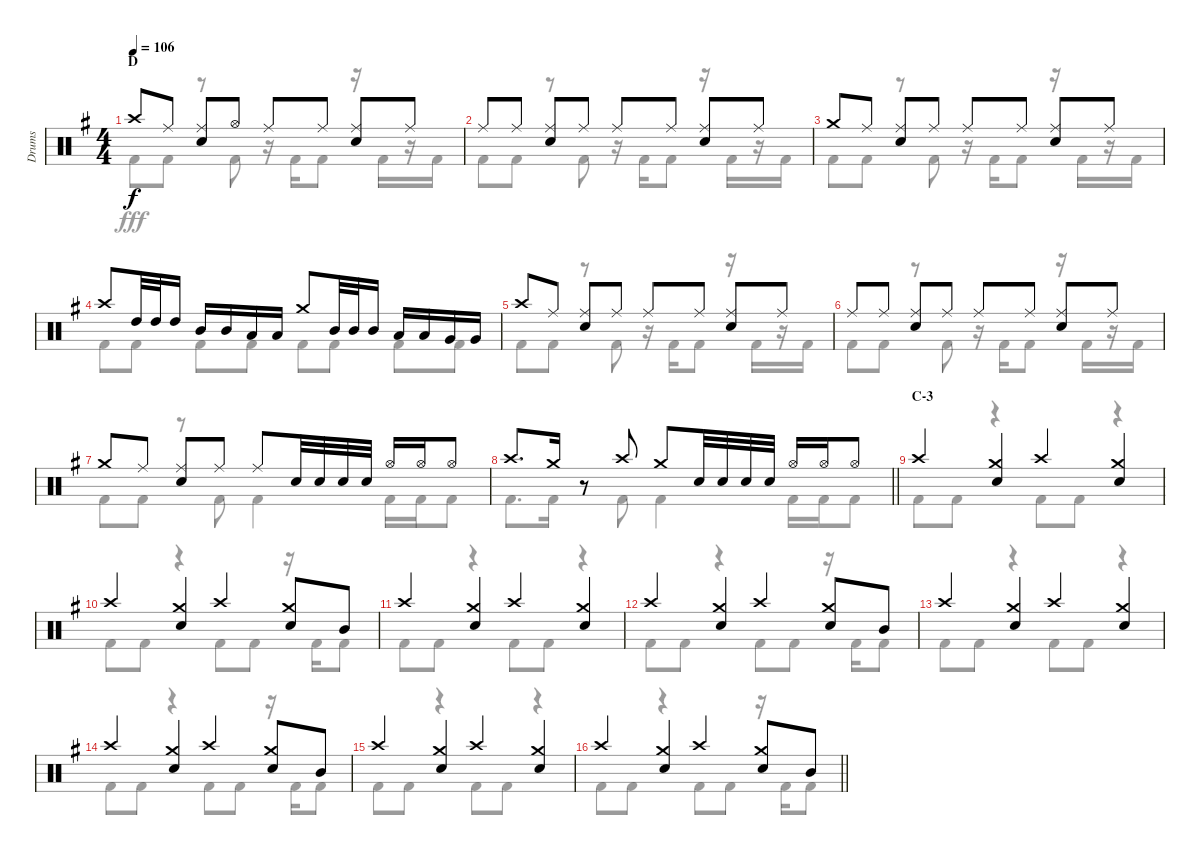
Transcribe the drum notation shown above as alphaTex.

\track ("Drums" "Drums") {instrument percussion}
\staff {score}
\articulation defaults
\voice
\ts (4 4)
\section ("" "D")
\tempo 106
\clef neutral
\ks g "Crash high (hit)".8{dy f} "Ride (middle)".8
("Ride (middle)" "Snare (hit) 2").8 "Hi-Hat (open)".8 "Ride (middle)".8 "Ride (middle)".8 ("Ride (middle)" "Snare (hit) 2").8 "Ride (middle)".8 |
"Ride (middle)".8 "Ride (middle)".8 ("Ride (middle)" "Snare (hit) 2").8 "Ride (middle)".8 "Ride (middle)".8 "Ride (middle)".8 ("Ride (middle)" "Snare (hit) 2").8 "Ride (middle)".8 |
"Crash medium (hit)".8 "Ride (middle)".8 ("Ride (middle)" "Snare (hit) 2").8 "Ride (middle)".8 "Ride (middle)".8 "Ride (middle)".8 ("Ride (middle)" "Snare (hit) 2").8 "Ride (middle)".8 |
"Crash high (hit)".8 "High Tom (hit)".32 "High Tom (hit)".32 "High Tom (hit)".16 "Mid Tom (hit)".16 "Mid Tom (hit)".16 "Low Tom (hit)".16 "Low Tom (hit)".16 "Crash medium (hit)".8 "Mid Tom (hit)".32 "Mid Tom (hit)".32 "Mid Tom (hit)".16 "Low Tom (hit)".16 "Low Tom (hit)".16 "Very Low Tom (hit)".16 "Very Low Tom (hit)".16 |
"Crash high (hit)".8 "Ride (middle)".8 ("Ride (middle)" "Snare (hit) 2").8 "Ride (middle)".8 "Ride (middle)".8 "Ride (middle)".8 ("Ride (middle)" "Snare (hit) 2").8 "Ride (middle)".8 |
"Ride (middle)".8 "Ride (middle)".8 ("Ride (middle)" "Snare (hit) 2").8 "Ride (middle)".8 "Ride (middle)".8 "Ride (middle)".8 ("Ride (middle)" "Snare (hit) 2").8 "Ride (middle)".8 |
"Crash medium (hit)".8 "Ride (middle)".8 ("Ride (middle)" "Snare (hit) 2").8 "Ride (middle)".8 "Ride (middle)".8 "Snare (hit) 2".32 "Snare (hit) 2".32 "Snare (hit) 2".32 "Snare (hit) 2".32 "Hi-Hat (open)".16 "Hi-Hat (open)".16 "Hi-Hat (open)".8 |
\barLineRight lightlight "Crash high (hit)".8{d} "Crash medium (hit)".16
r.8 "Crash high (hit)".8 "Crash medium (hit)".8 "Snare (hit) 2".32 "Snare (hit) 2".32 "Snare (hit) 2".32 "Snare (hit) 2".32 "Hi-Hat (open)".16 "Hi-Hat (open)".16 "Hi-Hat (open)".8 |
\section ("" "C-3")
"Crash high (hit)".4 ("Crash medium (hit)" "Snare (hit) 2").4 "Crash high (hit)".4 ("Crash medium (hit)" "Snare (hit) 2").4 |
"Crash high (hit)".4 ("Crash medium (hit)" "Snare (hit) 2").4 "Crash high (hit)".4 ("Crash medium (hit)" "Snare (hit) 2").8 "Mid Tom (hit)".8 |
"Crash high (hit)".4 ("Crash medium (hit)" "Snare (hit) 2").4 "Crash high (hit)".4 ("Crash medium (hit)" "Snare (hit) 2").4 |
"Crash high (hit)".4 ("Crash medium (hit)" "Snare (hit) 2").4 "Crash high (hit)".4 ("Crash medium (hit)" "Snare (hit) 2").8 "Mid Tom (hit)".8 |
"Crash high (hit)".4 ("Crash medium (hit)" "Snare (hit) 2").4 "Crash high (hit)".4 ("Crash medium (hit)" "Snare (hit) 2").4 |
"Crash high (hit)".4 ("Crash medium (hit)" "Snare (hit) 2").4 "Crash high (hit)".4 ("Crash medium (hit)" "Snare (hit) 2").8 "Mid Tom (hit)".8 |
"Crash high (hit)".4 ("Crash medium (hit)" "Snare (hit) 2").4 "Crash high (hit)".4 ("Crash medium (hit)" "Snare (hit) 2").4 |
\barLineRight lightlight "Crash high (hit)".4
("Crash medium (hit)" "Snare (hit) 2").4 "Crash high (hit)".4 ("Crash medium (hit)" "Snare (hit) 2").8 "Mid Tom (hit)".8
\voice
\clef neutral
\ottava regular
\simile none
\ks g "Kick (hit) 2".8{dy fff} "Kick (hit) 2".8
r.8 "Kick (hit) 2".8 r.16 "Kick (hit) 2".16 "Kick (hit) 2".8 r.16 "Kick (hit) 2".16 r.16 "Kick (hit) 2".16 |
"Kick (hit) 2".8 "Kick (hit) 2".8 r.8 "Kick (hit) 2".8 r.16 "Kick (hit) 2".16 "Kick (hit) 2".8 r.16 "Kick (hit) 2".16 r.16 "Kick (hit) 2".16 |
"Kick (hit) 2".8 "Kick (hit) 2".8 r.8 "Kick (hit) 2".8 r.16 "Kick (hit) 2".16 "Kick (hit) 2".8 r.16 "Kick (hit) 2".16 r.16 "Kick (hit) 2".16 |
"Kick (hit) 2".8 "Kick (hit) 2".8 "Kick (hit) 2".8 "Kick (hit) 2".8 "Kick (hit) 2".8 "Kick (hit) 2".8 "Kick (hit) 2".8 "Kick (hit) 2".8 |
"Kick (hit) 2".8 "Kick (hit) 2".8 r.8 "Kick (hit) 2".8 r.16 "Kick (hit) 2".16 "Kick (hit) 2".8 r.16 "Kick (hit) 2".16 r.16 "Kick (hit) 2".16 |
"Kick (hit) 2".8 "Kick (hit) 2".8 r.8 "Kick (hit) 2".8 r.16 "Kick (hit) 2".16 "Kick (hit) 2".8 r.16 "Kick (hit) 2".16 r.16 "Kick (hit) 2".16 |
"Kick (hit) 2".8 "Kick (hit) 2".8 r.8 "Kick (hit) 2".8 "Kick (hit) 2".4 "Kick (hit) 2".16 "Kick (hit) 2".16 "Kick (hit) 2".8 |
\barLineRight lightlight "Kick (hit) 2".8{d} "Kick (hit) 2".16
r.8 "Kick (hit) 2".8 "Kick (hit) 2".4 "Kick (hit) 2".16 "Kick (hit) 2".16 "Kick (hit) 2".8 |
"Kick (hit) 2".8 "Kick (hit) 2".8 r.4 "Kick (hit) 2".8 "Kick (hit) 2".8 r.4 |
"Kick (hit) 2".8 "Kick (hit) 2".8 r.4 "Kick (hit) 2".8 "Kick (hit) 2".8 r.16 "Kick (hit) 2".16 "Kick (hit) 2".8 |
"Kick (hit) 2".8 "Kick (hit) 2".8 r.4 "Kick (hit) 2".8 "Kick (hit) 2".8 r.4 |
"Kick (hit) 2".8 "Kick (hit) 2".8 r.4 "Kick (hit) 2".8 "Kick (hit) 2".8 r.16 "Kick (hit) 2".16 "Kick (hit) 2".8 |
"Kick (hit) 2".8 "Kick (hit) 2".8 r.4 "Kick (hit) 2".8 "Kick (hit) 2".8 r.4 |
"Kick (hit) 2".8 "Kick (hit) 2".8 r.4 "Kick (hit) 2".8 "Kick (hit) 2".8 r.16 "Kick (hit) 2".16 "Kick (hit) 2".8 |
"Kick (hit) 2".8 "Kick (hit) 2".8 r.4 "Kick (hit) 2".8 "Kick (hit) 2".8 r.4 |
\barLineRight lightlight "Kick (hit) 2".8 "Kick (hit) 2".8
r.4 "Kick (hit) 2".8 "Kick (hit) 2".8 r.16 "Kick (hit) 2".16 "Kick (hit) 2".8
